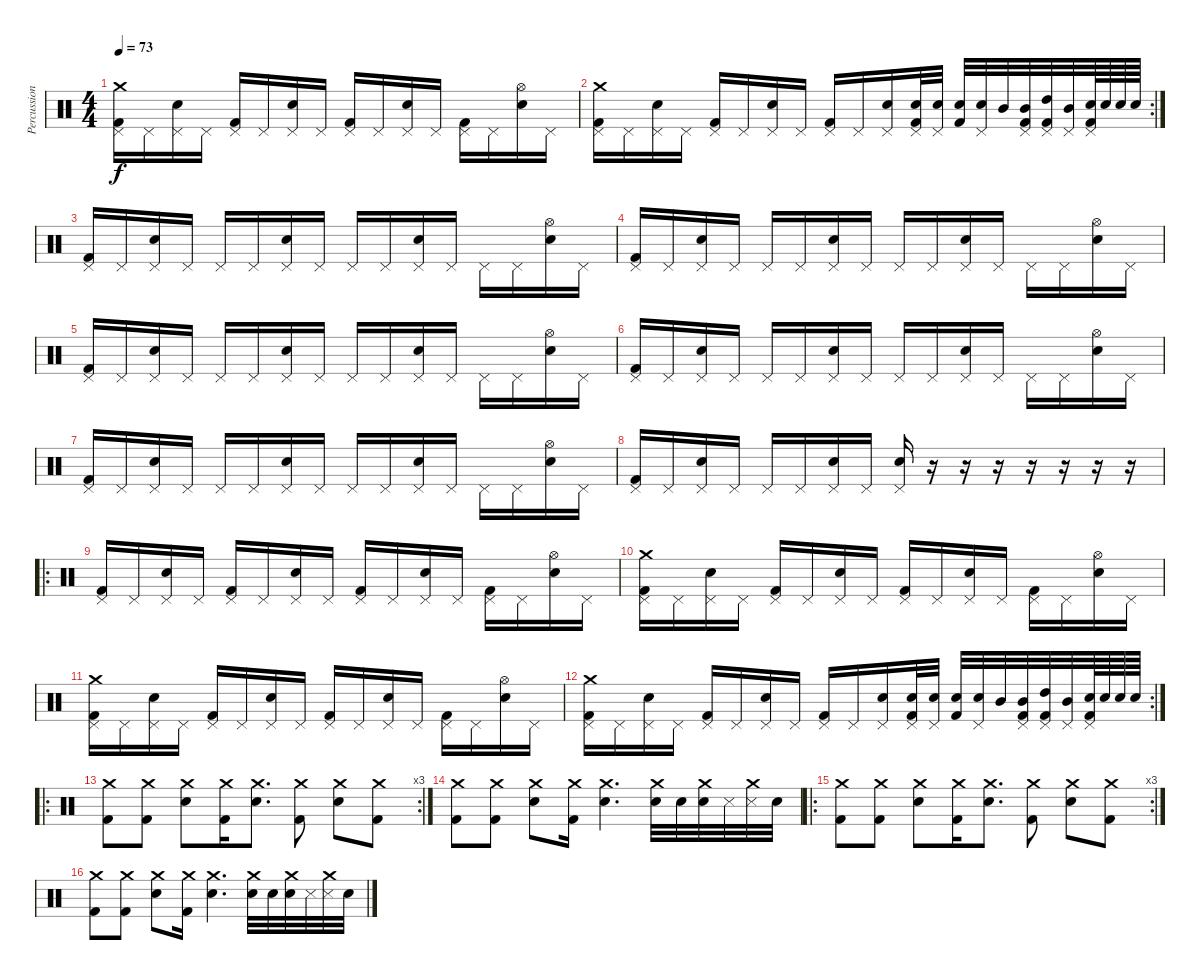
\track ("Percussion" "Percussion") {instrument percussion}
\staff {score}
\articulation defaults
\ts (4 4)
\tempo 73
\clef neutral
\ks c
("Crash medium (hit)" "Pedal Hi-Hat (hit)" "Kick (hit) 2").16{dy f} "Pedal Hi-Hat (hit)".16 ("Pedal Hi-Hat (hit)" "Snare (hit) 2").16 "Pedal Hi-Hat (hit)".16 ("Pedal Hi-Hat (hit)" "Kick (hit) 2").16 "Pedal Hi-Hat (hit)".16 ("Pedal Hi-Hat (hit)" "Snare (hit) 2").16 "Pedal Hi-Hat (hit)".16 ("Pedal Hi-Hat (hit)" "Kick (hit) 2").16 "Pedal Hi-Hat (hit)".16 ("Pedal Hi-Hat (hit)" "Snare (hit) 2").16 "Pedal Hi-Hat (hit)".16 ("Pedal Hi-Hat (hit)" "Kick (hit) 2").16 "Pedal Hi-Hat (hit)".16 ("Hi-Hat (open)" "Snare (hit) 2").16 "Pedal Hi-Hat (hit)".16 |
\rc 2
("Crash medium (hit)" "Pedal Hi-Hat (hit)" "Kick (hit) 2").16 "Pedal Hi-Hat (hit)".16 ("Pedal Hi-Hat (hit)" "Snare (hit) 2").16 "Pedal Hi-Hat (hit)".16 ("Pedal Hi-Hat (hit)" "Kick (hit) 2").16 "Pedal Hi-Hat (hit)".16 ("Pedal Hi-Hat (hit)" "Snare (hit) 2").16 "Pedal Hi-Hat (hit)".16 ("Pedal Hi-Hat (hit)" "Kick (hit) 2").16 "Pedal Hi-Hat (hit)".16 ("Pedal Hi-Hat (hit)" "Snare (hit) 2").16 ("Pedal Hi-Hat (hit)" "Snare (hit) 2" "Kick (hit) 2").32 ("Pedal Hi-Hat (hit)" "Snare (hit) 2").32 ("Snare (hit) 2" "Kick (hit) 2").32 ("Pedal Hi-Hat (hit)" "Snare (hit) 2").32 "Mid Tom (hit)".32 ("Pedal Hi-Hat (hit)" "Mid Tom (hit)" "Kick (hit) 2").32 ("Pedal Hi-Hat (hit)" "High Tom (hit)" "Kick (hit) 2").32 ("Pedal Hi-Hat (hit)" "Mid Tom (hit)").32 ("Pedal Hi-Hat (hit)" "Snare (hit) 2" "Kick (hit) 2").64 "Snare (hit) 2".64 "Snare (hit) 2".64 "Snare (hit) 2".64 |
("Pedal Hi-Hat (hit)" "Kick (hit) 2").16 "Pedal Hi-Hat (hit)".16 ("Pedal Hi-Hat (hit)" "Snare (hit) 2").16 "Pedal Hi-Hat (hit)".16 "Pedal Hi-Hat (hit)".16 "Pedal Hi-Hat (hit)".16 ("Pedal Hi-Hat (hit)" "Snare (hit) 2").16 "Pedal Hi-Hat (hit)".16 "Pedal Hi-Hat (hit)".16 "Pedal Hi-Hat (hit)".16 ("Pedal Hi-Hat (hit)" "Snare (hit) 2").16 "Pedal Hi-Hat (hit)".16 "Pedal Hi-Hat (hit)".16 "Pedal Hi-Hat (hit)".16 ("Hi-Hat (open)" "Snare (hit) 2").16 "Pedal Hi-Hat (hit)".16 |
("Pedal Hi-Hat (hit)" "Kick (hit) 2").16 "Pedal Hi-Hat (hit)".16 ("Pedal Hi-Hat (hit)" "Snare (hit) 2").16 "Pedal Hi-Hat (hit)".16 "Pedal Hi-Hat (hit)".16 "Pedal Hi-Hat (hit)".16 ("Pedal Hi-Hat (hit)" "Snare (hit) 2").16 "Pedal Hi-Hat (hit)".16 "Pedal Hi-Hat (hit)".16 "Pedal Hi-Hat (hit)".16 ("Pedal Hi-Hat (hit)" "Snare (hit) 2").16 "Pedal Hi-Hat (hit)".16 "Pedal Hi-Hat (hit)".16 "Pedal Hi-Hat (hit)".16 ("Hi-Hat (open)" "Snare (hit) 2").16 "Pedal Hi-Hat (hit)".16 |
("Pedal Hi-Hat (hit)" "Kick (hit) 2").16 "Pedal Hi-Hat (hit)".16 ("Pedal Hi-Hat (hit)" "Snare (hit) 2").16 "Pedal Hi-Hat (hit)".16 "Pedal Hi-Hat (hit)".16 "Pedal Hi-Hat (hit)".16 ("Pedal Hi-Hat (hit)" "Snare (hit) 2").16 "Pedal Hi-Hat (hit)".16 "Pedal Hi-Hat (hit)".16 "Pedal Hi-Hat (hit)".16 ("Pedal Hi-Hat (hit)" "Snare (hit) 2").16 "Pedal Hi-Hat (hit)".16 "Pedal Hi-Hat (hit)".16 "Pedal Hi-Hat (hit)".16 ("Hi-Hat (open)" "Snare (hit) 2").16 "Pedal Hi-Hat (hit)".16 |
("Pedal Hi-Hat (hit)" "Kick (hit) 2").16 "Pedal Hi-Hat (hit)".16 ("Pedal Hi-Hat (hit)" "Snare (hit) 2").16 "Pedal Hi-Hat (hit)".16 "Pedal Hi-Hat (hit)".16 "Pedal Hi-Hat (hit)".16 ("Pedal Hi-Hat (hit)" "Snare (hit) 2").16 "Pedal Hi-Hat (hit)".16 "Pedal Hi-Hat (hit)".16 "Pedal Hi-Hat (hit)".16 ("Pedal Hi-Hat (hit)" "Snare (hit) 2").16 "Pedal Hi-Hat (hit)".16 "Pedal Hi-Hat (hit)".16 "Pedal Hi-Hat (hit)".16 ("Hi-Hat (open)" "Snare (hit) 2").16 "Pedal Hi-Hat (hit)".16 |
("Pedal Hi-Hat (hit)" "Kick (hit) 2").16 "Pedal Hi-Hat (hit)".16 ("Pedal Hi-Hat (hit)" "Snare (hit) 2").16 "Pedal Hi-Hat (hit)".16 "Pedal Hi-Hat (hit)".16 "Pedal Hi-Hat (hit)".16 ("Pedal Hi-Hat (hit)" "Snare (hit) 2").16 "Pedal Hi-Hat (hit)".16 "Pedal Hi-Hat (hit)".16 "Pedal Hi-Hat (hit)".16 ("Pedal Hi-Hat (hit)" "Snare (hit) 2").16 "Pedal Hi-Hat (hit)".16 "Pedal Hi-Hat (hit)".16 "Pedal Hi-Hat (hit)".16 ("Hi-Hat (open)" "Snare (hit) 2").16 "Pedal Hi-Hat (hit)".16 |
("Pedal Hi-Hat (hit)" "Kick (hit) 2").16 "Pedal Hi-Hat (hit)".16 ("Pedal Hi-Hat (hit)" "Snare (hit) 2").16 "Pedal Hi-Hat (hit)".16 "Pedal Hi-Hat (hit)".16 "Pedal Hi-Hat (hit)".16 ("Pedal Hi-Hat (hit)" "Snare (hit) 2").16 "Pedal Hi-Hat (hit)".16 ("Pedal Hi-Hat (hit)" "Snare (hit) 2").16 r.16 r.16 r.16 r.16 r.16 r.16 r.16 |
\ro
("Pedal Hi-Hat (hit)" "Kick (hit) 2").16 "Pedal Hi-Hat (hit)".16 ("Pedal Hi-Hat (hit)" "Snare (hit) 2").16 "Pedal Hi-Hat (hit)".16 ("Pedal Hi-Hat (hit)" "Kick (hit) 2").16 "Pedal Hi-Hat (hit)".16 ("Pedal Hi-Hat (hit)" "Snare (hit) 2").16 "Pedal Hi-Hat (hit)".16 ("Pedal Hi-Hat (hit)" "Kick (hit) 2").16 "Pedal Hi-Hat (hit)".16 ("Pedal Hi-Hat (hit)" "Snare (hit) 2").16 "Pedal Hi-Hat (hit)".16 ("Pedal Hi-Hat (hit)" "Kick (hit) 2").16 "Pedal Hi-Hat (hit)".16 ("Hi-Hat (open)" "Snare (hit) 2").16 "Pedal Hi-Hat (hit)".16 |
("Crash medium (hit)" "Pedal Hi-Hat (hit)" "Kick (hit) 2").16 "Pedal Hi-Hat (hit)".16 ("Pedal Hi-Hat (hit)" "Snare (hit) 2").16 "Pedal Hi-Hat (hit)".16 ("Pedal Hi-Hat (hit)" "Kick (hit) 2").16 "Pedal Hi-Hat (hit)".16 ("Pedal Hi-Hat (hit)" "Snare (hit) 2").16 "Pedal Hi-Hat (hit)".16 ("Pedal Hi-Hat (hit)" "Kick (hit) 2").16 "Pedal Hi-Hat (hit)".16 ("Pedal Hi-Hat (hit)" "Snare (hit) 2").16 "Pedal Hi-Hat (hit)".16 ("Pedal Hi-Hat (hit)" "Kick (hit) 2").16 "Pedal Hi-Hat (hit)".16 ("Hi-Hat (open)" "Snare (hit) 2").16 "Pedal Hi-Hat (hit)".16 |
("Crash medium (hit)" "Pedal Hi-Hat (hit)" "Kick (hit) 2").16 "Pedal Hi-Hat (hit)".16 ("Pedal Hi-Hat (hit)" "Snare (hit) 2").16 "Pedal Hi-Hat (hit)".16 ("Pedal Hi-Hat (hit)" "Kick (hit) 2").16 "Pedal Hi-Hat (hit)".16 ("Pedal Hi-Hat (hit)" "Snare (hit) 2").16 "Pedal Hi-Hat (hit)".16 ("Pedal Hi-Hat (hit)" "Kick (hit) 2").16 "Pedal Hi-Hat (hit)".16 ("Pedal Hi-Hat (hit)" "Snare (hit) 2").16 "Pedal Hi-Hat (hit)".16 ("Pedal Hi-Hat (hit)" "Kick (hit) 2").16 "Pedal Hi-Hat (hit)".16 ("Hi-Hat (open)" "Snare (hit) 2").16 "Pedal Hi-Hat (hit)".16 |
\rc 2
("Crash medium (hit)" "Pedal Hi-Hat (hit)" "Kick (hit) 2").16 "Pedal Hi-Hat (hit)".16 ("Pedal Hi-Hat (hit)" "Snare (hit) 2").16 "Pedal Hi-Hat (hit)".16 ("Pedal Hi-Hat (hit)" "Kick (hit) 2").16 "Pedal Hi-Hat (hit)".16 ("Pedal Hi-Hat (hit)" "Snare (hit) 2").16 "Pedal Hi-Hat (hit)".16 ("Pedal Hi-Hat (hit)" "Kick (hit) 2").16 "Pedal Hi-Hat (hit)".16 ("Pedal Hi-Hat (hit)" "Snare (hit) 2").16 ("Pedal Hi-Hat (hit)" "Snare (hit) 2" "Kick (hit) 2").32 ("Pedal Hi-Hat (hit)" "Snare (hit) 2").32 ("Snare (hit) 2" "Kick (hit) 2").32 ("Pedal Hi-Hat (hit)" "Snare (hit) 2").32 "Mid Tom (hit)".32 ("Pedal Hi-Hat (hit)" "Mid Tom (hit)" "Kick (hit) 2").32 ("Pedal Hi-Hat (hit)" "High Tom (hit)" "Kick (hit) 2").32 ("Pedal Hi-Hat (hit)" "Mid Tom (hit)").32 ("Pedal Hi-Hat (hit)" "Snare (hit) 2" "Kick (hit) 2").64 "Snare (hit) 2".64 "Snare (hit) 2".64 "Snare (hit) 2".64 |
\ro
\rc 3
("Crash medium (hit)" "Kick (hit) 2").8 ("Crash medium (hit)" "Kick (hit) 2").8 ("Crash medium (hit)" "Snare (hit) 2").8 ("Crash medium (hit)" "Kick (hit) 2").16 ("Crash medium (hit)" "Snare (hit) 2").8{d} ("Crash medium (hit)" "Kick (hit) 2").8 ("Crash medium (hit)" "Snare (hit) 2").8 ("Crash medium (hit)" "Kick (hit) 2").8 |
("Crash medium (hit)" "Kick (hit) 2").8 ("Crash medium (hit)" "Kick (hit) 2").8 ("Crash medium (hit)" "Snare (hit) 2").8 ("Crash medium (hit)" "Kick (hit) 2").16 ("Crash medium (hit)" "Snare (hit) 2").4{d} ("Crash medium (hit)" "Snare (hit) 2").32 "Snare (hit) 2".32 ("Crash medium (hit)" "Snare (hit) 2").32 "Snare (side stick) 3".32 ("Crash medium (hit)" "Snare (side stick) 3").32 "Snare (hit) 2".32 |
\ro
\rc 3
("Crash medium (hit)" "Kick (hit) 2").8 ("Crash medium (hit)" "Kick (hit) 2").8 ("Crash medium (hit)" "Snare (hit) 2").8 ("Crash medium (hit)" "Kick (hit) 2").16 ("Crash medium (hit)" "Snare (hit) 2").8{d} ("Crash medium (hit)" "Kick (hit) 2").8 ("Crash medium (hit)" "Snare (hit) 2").8 ("Crash medium (hit)" "Kick (hit) 2").8 |
("Crash medium (hit)" "Kick (hit) 2").8 ("Crash medium (hit)" "Kick (hit) 2").8 ("Crash medium (hit)" "Snare (hit) 2").8 ("Crash medium (hit)" "Kick (hit) 2").16 ("Crash medium (hit)" "Snare (hit) 2").4{d} ("Crash medium (hit)" "Snare (hit) 2").32 "Snare (hit) 2".32 ("Crash medium (hit)" "Snare (hit) 2").32 "Snare (side stick) 3".32 ("Crash medium (hit)" "Snare (side stick) 3").32 "Snare (hit) 2".32
